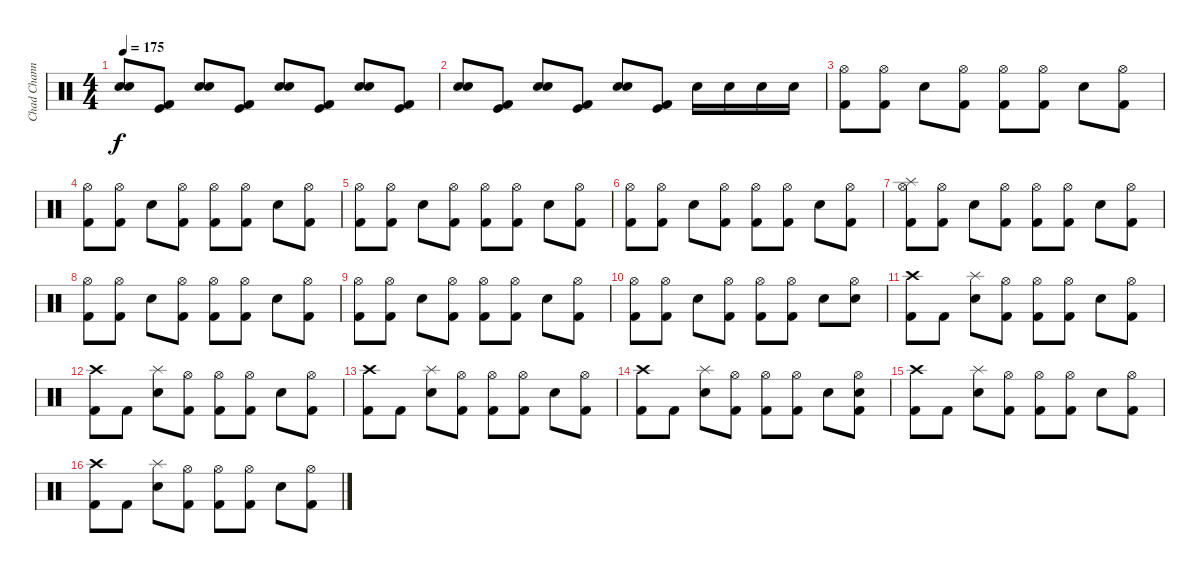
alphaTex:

\track ("Chad Channing" "Chad Chann") {instrument percussion}
\staff {score}
\articulation defaults
\ts (4 4)
\tempo 175
\clef neutral
\ks c
("Snare (hit) 2" "Snare (hit) 2").8{dy f} ("Kick (hit)" "Kick (hit) 2").8 ("Snare (hit) 2" "Snare (hit) 2").8 ("Kick (hit)" "Kick (hit) 2").8 ("Snare (hit) 2" "Snare (hit) 2").8 ("Kick (hit)" "Kick (hit) 2").8 ("Snare (hit) 2" "Snare (hit) 2").8 ("Kick (hit)" "Kick (hit) 2").8 |
("Snare (hit) 2" "Snare (hit) 2").8 ("Kick (hit)" "Kick (hit) 2").8 ("Snare (hit) 2" "Snare (hit) 2").8 ("Kick (hit)" "Kick (hit) 2").8 ("Snare (hit) 2" "Snare (hit) 2").8 ("Kick (hit)" "Kick (hit) 2").8 "Snare (hit) 2".16 "Snare (hit) 2".16 "Snare (hit) 2".16 "Snare (hit) 2".16 |
("Hi-Hat (open)" "Kick (hit) 2").8 ("Hi-Hat (open)" "Kick (hit) 2").8 "Snare (hit) 2".8 ("Hi-Hat (open)" "Kick (hit) 2").8 ("Hi-Hat (open)" "Kick (hit) 2").8 ("Hi-Hat (open)" "Kick (hit) 2").8 "Snare (hit) 2".8 ("Hi-Hat (open)" "Kick (hit) 2").8 |
("Hi-Hat (open)" "Kick (hit) 2").8 ("Hi-Hat (open)" "Kick (hit) 2").8 "Snare (hit) 2".8 ("Hi-Hat (open)" "Kick (hit) 2").8 ("Hi-Hat (open)" "Kick (hit) 2").8 ("Hi-Hat (open)" "Kick (hit) 2").8 "Snare (hit) 2".8 ("Hi-Hat (open)" "Kick (hit) 2").8 |
("Hi-Hat (open)" "Kick (hit) 2").8 ("Hi-Hat (open)" "Kick (hit) 2").8 "Snare (hit) 2".8 ("Hi-Hat (open)" "Kick (hit) 2").8 ("Hi-Hat (open)" "Kick (hit) 2").8 ("Hi-Hat (open)" "Kick (hit) 2").8 "Snare (hit) 2".8 ("Hi-Hat (open)" "Kick (hit) 2").8 |
("Hi-Hat (open)" "Kick (hit) 2").8 ("Hi-Hat (open)" "Kick (hit) 2").8 "Snare (hit) 2".8 ("Hi-Hat (open)" "Kick (hit) 2").8 ("Hi-Hat (open)" "Kick (hit) 2").8 ("Hi-Hat (open)" "Kick (hit) 2").8 "Snare (hit) 2".8 ("Hi-Hat (open)" "Kick (hit) 2").8 |
("Splash (hit)" "Hi-Hat (open)" "Kick (hit) 2").8 ("Hi-Hat (open)" "Kick (hit) 2").8 "Snare (hit) 2".8 ("Hi-Hat (open)" "Kick (hit) 2").8 ("Hi-Hat (open)" "Kick (hit) 2").8 ("Hi-Hat (open)" "Kick (hit) 2").8 "Snare (hit) 2".8 ("Hi-Hat (open)" "Kick (hit) 2").8 |
("Hi-Hat (open)" "Kick (hit) 2").8 ("Hi-Hat (open)" "Kick (hit) 2").8 "Snare (hit) 2".8 ("Hi-Hat (open)" "Kick (hit) 2").8 ("Hi-Hat (open)" "Kick (hit) 2").8 ("Hi-Hat (open)" "Kick (hit) 2").8 "Snare (hit) 2".8 ("Hi-Hat (open)" "Kick (hit) 2").8 |
("Hi-Hat (open)" "Kick (hit) 2").8 ("Hi-Hat (open)" "Kick (hit) 2").8 "Snare (hit) 2".8 ("Hi-Hat (open)" "Kick (hit) 2").8 ("Hi-Hat (open)" "Kick (hit) 2").8 ("Hi-Hat (open)" "Kick (hit) 2").8 "Snare (hit) 2".8 ("Hi-Hat (open)" "Kick (hit) 2").8 |
("Hi-Hat (open)" "Kick (hit) 2").8 ("Hi-Hat (open)" "Kick (hit) 2").8 "Snare (hit) 2".8 ("Hi-Hat (open)" "Kick (hit) 2").8 ("Hi-Hat (open)" "Kick (hit) 2").8 ("Hi-Hat (open)" "Kick (hit) 2").8 "Snare (hit) 2".8 ("Hi-Hat (open)" "Snare (hit) 2").8 |
("Crash high (hit)" "Kick (hit) 2").8 "Kick (hit) 2".8 ("Splash (hit)" "Snare (hit) 2").8 ("Hi-Hat (open)" "Kick (hit) 2").8 ("Hi-Hat (open)" "Kick (hit) 2").8 ("Hi-Hat (open)" "Kick (hit) 2").8 "Snare (hit) 2".8 ("Hi-Hat (open)" "Kick (hit) 2").8 |
("Crash high (hit)" "Kick (hit) 2").8 "Kick (hit) 2".8 ("Splash (hit)" "Snare (hit) 2").8 ("Hi-Hat (open)" "Kick (hit) 2").8 ("Hi-Hat (open)" "Kick (hit) 2").8 ("Hi-Hat (open)" "Kick (hit) 2").8 "Snare (hit) 2".8 ("Hi-Hat (open)" "Kick (hit) 2").8 |
("Crash high (hit)" "Kick (hit) 2").8 "Kick (hit) 2".8 ("Splash (hit)" "Snare (hit) 2").8 ("Hi-Hat (open)" "Kick (hit) 2").8 ("Hi-Hat (open)" "Kick (hit) 2").8 ("Hi-Hat (open)" "Kick (hit) 2").8 "Snare (hit) 2".8 ("Hi-Hat (open)" "Kick (hit) 2").8 |
("Crash high (hit)" "Kick (hit) 2").8 "Kick (hit) 2".8 ("Splash (hit)" "Snare (hit) 2").8 ("Hi-Hat (open)" "Kick (hit) 2").8 ("Hi-Hat (open)" "Kick (hit) 2").8 ("Hi-Hat (open)" "Kick (hit) 2").8 "Snare (hit) 2".8 ("Hi-Hat (open)" "Snare (hit) 2" "Kick (hit) 2").8 |
("Crash high (hit)" "Kick (hit) 2").8 "Kick (hit) 2".8 ("Splash (hit)" "Snare (hit) 2").8 ("Hi-Hat (open)" "Kick (hit) 2").8 ("Hi-Hat (open)" "Kick (hit) 2").8 ("Hi-Hat (open)" "Kick (hit) 2").8 "Snare (hit) 2".8 ("Hi-Hat (open)" "Kick (hit) 2").8 |
("Crash high (hit)" "Kick (hit) 2").8 "Kick (hit) 2".8 ("Splash (hit)" "Snare (hit) 2").8 ("Hi-Hat (open)" "Kick (hit) 2").8 ("Hi-Hat (open)" "Kick (hit) 2").8 ("Hi-Hat (open)" "Kick (hit) 2").8 "Snare (hit) 2".8 ("Hi-Hat (open)" "Kick (hit) 2").8
